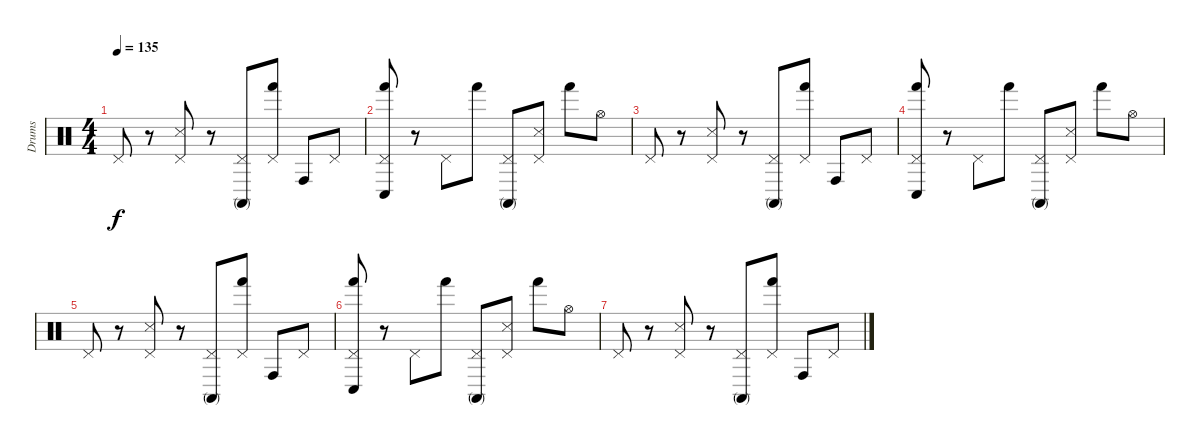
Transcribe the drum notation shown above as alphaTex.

\track ("Drums" "Drums") {instrument percussion}
\staff {score}
\articulation defaults
\ts (4 4)
\tempo 135
\clef neutral
\ks c "Pedal Hi-Hat (hit)".8{dy f}
r.8 ("Pedal Hi-Hat (hit)" "Snare (side stick) 3").8 r.8 ("Pedal Hi-Hat (hit)" "Conga high (mute)").8 ("Pedal Hi-Hat (hit)" "Hand (hit)").8 "Conga high (hit)".8 "Pedal Hi-Hat (hit)".8 |
("Pedal Hi-Hat (hit)" "Conga low (hit)" "Hand (hit)").8 r.8 "Pedal Hi-Hat (hit)".8 "Hand (hit)".8 ("Pedal Hi-Hat (hit)" "Conga high (mute)").8 ("Pedal Hi-Hat (hit)" "Snare (side stick) 3").8 "Hand (hit)".8 "Hi-Hat (open)".8 |
"Pedal Hi-Hat (hit)".8 r.8 ("Pedal Hi-Hat (hit)" "Snare (side stick) 3").8 r.8 ("Pedal Hi-Hat (hit)" "Conga high (mute)").8 ("Pedal Hi-Hat (hit)" "Hand (hit)").8 "Conga high (hit)".8 "Pedal Hi-Hat (hit)".8 |
("Pedal Hi-Hat (hit)" "Conga low (hit)" "Hand (hit)").8 r.8 "Pedal Hi-Hat (hit)".8 "Hand (hit)".8 ("Pedal Hi-Hat (hit)" "Conga high (mute)").8 ("Pedal Hi-Hat (hit)" "Snare (side stick) 3").8 "Hand (hit)".8 "Hi-Hat (open)".8 |
"Pedal Hi-Hat (hit)".8 r.8 ("Pedal Hi-Hat (hit)" "Snare (side stick) 3").8 r.8 ("Pedal Hi-Hat (hit)" "Conga high (mute)").8 ("Pedal Hi-Hat (hit)" "Hand (hit)").8 "Conga high (hit)".8 "Pedal Hi-Hat (hit)".8 |
("Pedal Hi-Hat (hit)" "Conga low (hit)" "Hand (hit)").8 r.8 "Pedal Hi-Hat (hit)".8 "Hand (hit)".8 ("Pedal Hi-Hat (hit)" "Conga high (mute)").8 ("Pedal Hi-Hat (hit)" "Snare (side stick) 3").8 "Hand (hit)".8 "Hi-Hat (open)".8 |
"Pedal Hi-Hat (hit)".8 r.8 ("Pedal Hi-Hat (hit)" "Snare (side stick) 3").8 r.8 ("Pedal Hi-Hat (hit)" "Conga high (mute)").8 ("Pedal Hi-Hat (hit)" "Hand (hit)").8 "Conga high (hit)".8 "Pedal Hi-Hat (hit)".8
